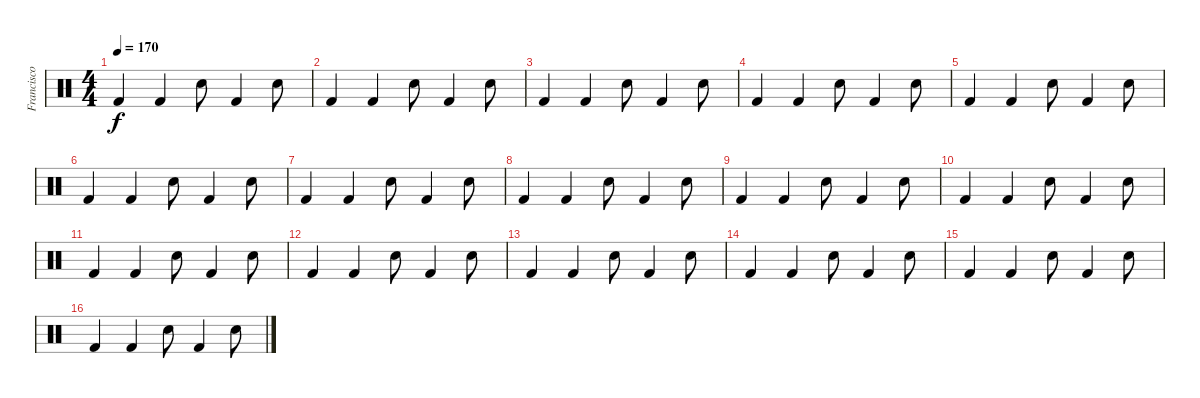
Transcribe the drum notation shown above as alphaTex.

\track ("Francisco (batería)" "Francisco ") {instrument percussion}
\staff {score}
\articulation defaults
\ts (4 4)
\tempo 170
\clef neutral
\ks c "Kick (hit) 2".4{dy f} "Kick (hit) 2".4 "Hand Clap (hit)".8 "Kick (hit) 2".4 "Hand Clap (hit)".8
|
"Kick (hit) 2".4 "Kick (hit) 2".4 "Hand Clap (hit)".8 "Kick (hit) 2".4 "Hand Clap (hit)".8 |
"Kick (hit) 2".4 "Kick (hit) 2".4 "Hand Clap (hit)".8 "Kick (hit) 2".4 "Hand Clap (hit)".8 |
"Kick (hit) 2".4 "Kick (hit) 2".4 "Hand Clap (hit)".8 "Kick (hit) 2".4 "Hand Clap (hit)".8 |
"Kick (hit) 2".4 "Kick (hit) 2".4 "Hand Clap (hit)".8 "Kick (hit) 2".4 "Hand Clap (hit)".8 |
"Kick (hit) 2".4 "Kick (hit) 2".4 "Hand Clap (hit)".8 "Kick (hit) 2".4 "Hand Clap (hit)".8 |
"Kick (hit) 2".4 "Kick (hit) 2".4 "Hand Clap (hit)".8 "Kick (hit) 2".4 "Hand Clap (hit)".8 |
"Kick (hit) 2".4 "Kick (hit) 2".4 "Hand Clap (hit)".8 "Kick (hit) 2".4 "Hand Clap (hit)".8 |
"Kick (hit) 2".4 "Kick (hit) 2".4 "Hand Clap (hit)".8 "Kick (hit) 2".4 "Hand Clap (hit)".8 |
"Kick (hit) 2".4 "Kick (hit) 2".4 "Hand Clap (hit)".8 "Kick (hit) 2".4 "Hand Clap (hit)".8 |
"Kick (hit) 2".4 "Kick (hit) 2".4 "Hand Clap (hit)".8 "Kick (hit) 2".4 "Hand Clap (hit)".8 |
"Kick (hit) 2".4 "Kick (hit) 2".4 "Hand Clap (hit)".8 "Kick (hit) 2".4 "Hand Clap (hit)".8 |
"Kick (hit) 2".4 "Kick (hit) 2".4 "Hand Clap (hit)".8 "Kick (hit) 2".4 "Hand Clap (hit)".8 |
"Kick (hit) 2".4 "Kick (hit) 2".4 "Hand Clap (hit)".8 "Kick (hit) 2".4 "Hand Clap (hit)".8 |
"Kick (hit) 2".4 "Kick (hit) 2".4 "Hand Clap (hit)".8 "Kick (hit) 2".4 "Hand Clap (hit)".8 |
"Kick (hit) 2".4 "Kick (hit) 2".4 "Hand Clap (hit)".8 "Kick (hit) 2".4 "Hand Clap (hit)".8
